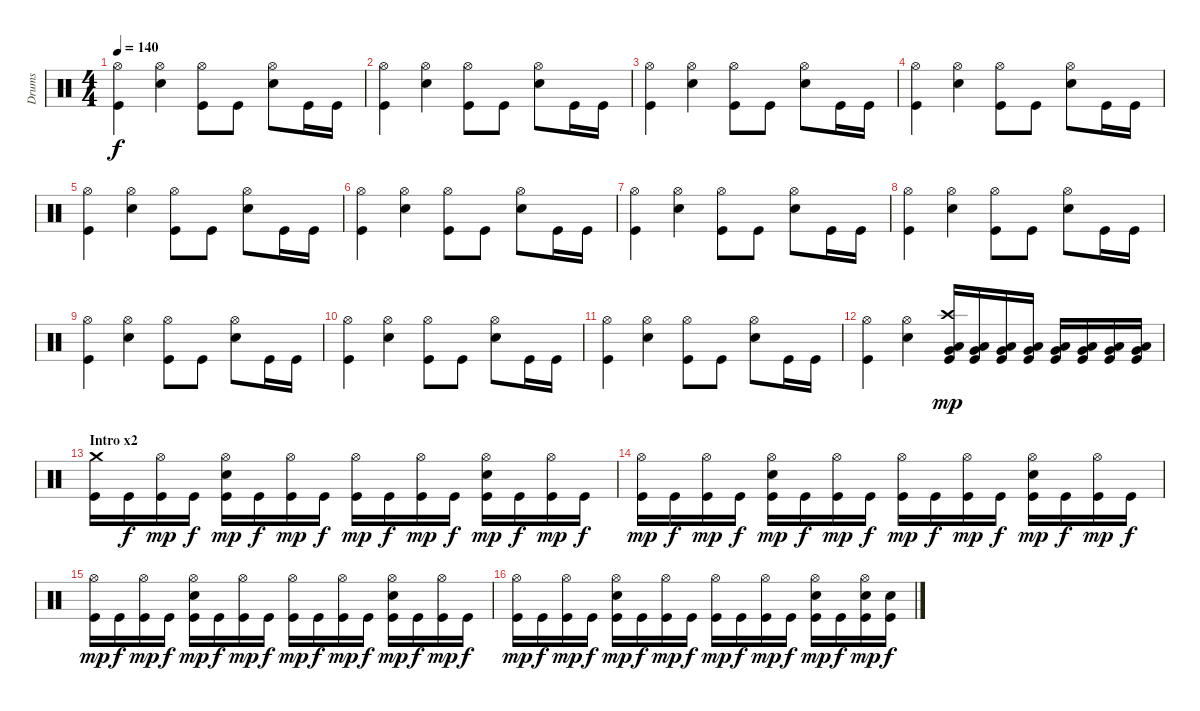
\track ("Drums" "Drums") {instrument percussion}
\staff {score}
\articulation defaults
\ts (4 4)
\tempo 140
\clef neutral
\ks c
("Hi-Hat (open)" "Kick (hit)").4{dy f} ("Hi-Hat (open)" "Snare (hit) 2").4 ("Hi-Hat (open)" "Kick (hit)").8 "Kick (hit)".8 ("Hi-Hat (open)" "Snare (hit) 2").8 "Kick (hit)".16 "Kick (hit)".16 |
("Hi-Hat (open)" "Kick (hit)").4 ("Hi-Hat (open)" "Snare (hit) 2").4 ("Hi-Hat (open)" "Kick (hit)").8 "Kick (hit)".8 ("Hi-Hat (open)" "Snare (hit) 2").8 "Kick (hit)".16 "Kick (hit)".16 |
("Hi-Hat (open)" "Kick (hit)").4 ("Hi-Hat (open)" "Snare (hit) 2").4 ("Hi-Hat (open)" "Kick (hit)").8 "Kick (hit)".8 ("Hi-Hat (open)" "Snare (hit) 2").8 "Kick (hit)".16 "Kick (hit)".16 |
("Hi-Hat (open)" "Kick (hit)").4 ("Hi-Hat (open)" "Snare (hit) 2").4 ("Hi-Hat (open)" "Kick (hit)").8 "Kick (hit)".8 ("Hi-Hat (open)" "Snare (hit) 2").8 "Kick (hit)".16 "Kick (hit)".16 |
("Hi-Hat (open)" "Kick (hit)").4 ("Hi-Hat (open)" "Snare (hit) 2").4 ("Hi-Hat (open)" "Kick (hit)").8 "Kick (hit)".8 ("Hi-Hat (open)" "Snare (hit) 2").8 "Kick (hit)".16 "Kick (hit)".16 |
("Hi-Hat (open)" "Kick (hit)").4 ("Hi-Hat (open)" "Snare (hit) 2").4 ("Hi-Hat (open)" "Kick (hit)").8 "Kick (hit)".8 ("Hi-Hat (open)" "Snare (hit) 2").8 "Kick (hit)".16 "Kick (hit)".16 |
("Hi-Hat (open)" "Kick (hit)").4 ("Hi-Hat (open)" "Snare (hit) 2").4 ("Hi-Hat (open)" "Kick (hit)").8 "Kick (hit)".8 ("Hi-Hat (open)" "Snare (hit) 2").8 "Kick (hit)".16 "Kick (hit)".16 |
("Hi-Hat (open)" "Kick (hit)").4 ("Hi-Hat (open)" "Snare (hit) 2").4 ("Hi-Hat (open)" "Kick (hit)").8 "Kick (hit)".8 ("Hi-Hat (open)" "Snare (hit) 2").8 "Kick (hit)".16 "Kick (hit)".16 |
("Hi-Hat (open)" "Kick (hit)").4 ("Hi-Hat (open)" "Snare (hit) 2").4 ("Hi-Hat (open)" "Kick (hit)").8 "Kick (hit)".8 ("Hi-Hat (open)" "Snare (hit) 2").8 "Kick (hit)".16 "Kick (hit)".16 |
("Hi-Hat (open)" "Kick (hit)").4 ("Hi-Hat (open)" "Snare (hit) 2").4 ("Hi-Hat (open)" "Kick (hit)").8 "Kick (hit)".8 ("Hi-Hat (open)" "Snare (hit) 2").8 "Kick (hit)".16 "Kick (hit)".16 |
("Hi-Hat (open)" "Kick (hit)").4 ("Hi-Hat (open)" "Snare (hit) 2").4 ("Hi-Hat (open)" "Kick (hit)").8 "Kick (hit)".8 ("Hi-Hat (open)" "Snare (hit) 2").8 "Kick (hit)".16 "Kick (hit)".16 |
("Hi-Hat (open)" "Kick (hit)").4 ("Hi-Hat (open)" "Snare (hit) 2").4 ("Crash high (hit)" "Low Tom (hit)" "Very Low Tom (hit)" "Kick (hit)").16{dy mp} ("Low Tom (hit)" "Very Low Tom (hit)" "Kick (hit)").16 ("Low Tom (hit)" "Very Low Tom (hit)" "Kick (hit)").16 ("Low Tom (hit)" "Very Low Tom (hit)" "Kick (hit)").16 ("Very Low Tom (hit)" "Low Floor Tom (hit)" "Kick (hit)").16 ("Very Low Tom (hit)" "Low Floor Tom (hit)" "Kick (hit)").16 ("Very Low Tom (hit)" "Low Floor Tom (hit)" "Kick (hit)").16 ("Very Low Tom (hit)" "Low Floor Tom (hit)" "Kick (hit)").16 |
\section ("" "Intro x2")
("Crash medium (hit)" "Kick (hit)").16 "Kick (hit)".16{dy f} ("Hi-Hat (open)" "Kick (hit)").16{dy mp} "Kick (hit)".16{dy f} ("Hi-Hat (open)" "Snare (hit) 2" "Kick (hit)").16{dy mp} "Kick (hit)".16{dy f} ("Hi-Hat (open)" "Kick (hit)").16{dy mp} "Kick (hit)".16{dy f} ("Hi-Hat (open)" "Kick (hit)").16{dy mp} "Kick (hit)".16{dy f} ("Hi-Hat (open)" "Kick (hit)").16{dy mp} "Kick (hit)".16{dy f} ("Hi-Hat (open)" "Snare (hit) 2" "Kick (hit)").16{dy mp} "Kick (hit)".16{dy f} ("Hi-Hat (open)" "Kick (hit)").16{dy mp} "Kick (hit)".16{dy f} |
("Hi-Hat (open)" "Kick (hit)").16{dy mp} "Kick (hit)".16{dy f} ("Hi-Hat (open)" "Kick (hit)").16{dy mp} "Kick (hit)".16{dy f} ("Hi-Hat (open)" "Snare (hit) 2" "Kick (hit)").16{dy mp} "Kick (hit)".16{dy f} ("Hi-Hat (open)" "Kick (hit)").16{dy mp} "Kick (hit)".16{dy f} ("Hi-Hat (open)" "Kick (hit)").16{dy mp} "Kick (hit)".16{dy f} ("Hi-Hat (open)" "Kick (hit)").16{dy mp} "Kick (hit)".16{dy f} ("Hi-Hat (open)" "Snare (hit) 2" "Kick (hit)").16{dy mp} "Kick (hit)".16{dy f} ("Hi-Hat (open)" "Kick (hit)").16{dy mp} "Kick (hit)".16{dy f} |
("Hi-Hat (open)" "Kick (hit)").16{dy mp} "Kick (hit)".16{dy f} ("Hi-Hat (open)" "Kick (hit)").16{dy mp} "Kick (hit)".16{dy f} ("Hi-Hat (open)" "Snare (hit) 2" "Kick (hit)").16{dy mp} "Kick (hit)".16{dy f} ("Hi-Hat (open)" "Kick (hit)").16{dy mp} "Kick (hit)".16{dy f} ("Hi-Hat (open)" "Kick (hit)").16{dy mp} "Kick (hit)".16{dy f} ("Hi-Hat (open)" "Kick (hit)").16{dy mp} "Kick (hit)".16{dy f} ("Hi-Hat (open)" "Snare (hit) 2" "Kick (hit)").16{dy mp} "Kick (hit)".16{dy f} ("Hi-Hat (open)" "Kick (hit)").16{dy mp} "Kick (hit)".16{dy f} |
("Hi-Hat (open)" "Kick (hit)").16{dy mp} "Kick (hit)".16{dy f} ("Hi-Hat (open)" "Kick (hit)").16{dy mp} "Kick (hit)".16{dy f} ("Hi-Hat (open)" "Snare (hit) 2" "Kick (hit)").16{dy mp} "Kick (hit)".16{dy f} ("Hi-Hat (open)" "Kick (hit)").16{dy mp} "Kick (hit)".16{dy f} ("Hi-Hat (open)" "Kick (hit)").16{dy mp} "Kick (hit)".16{dy f} ("Hi-Hat (open)" "Kick (hit)").16{dy mp} "Kick (hit)".16{dy f} ("Hi-Hat (open)" "Snare (hit) 2" "Kick (hit)").16{dy mp} "Kick (hit)".16{dy f} ("Hi-Hat (open)" "Snare (hit) 2" "Kick (hit)").16{dy mp} ("Snare (hit) 2" "Kick (hit)").16{dy f}
